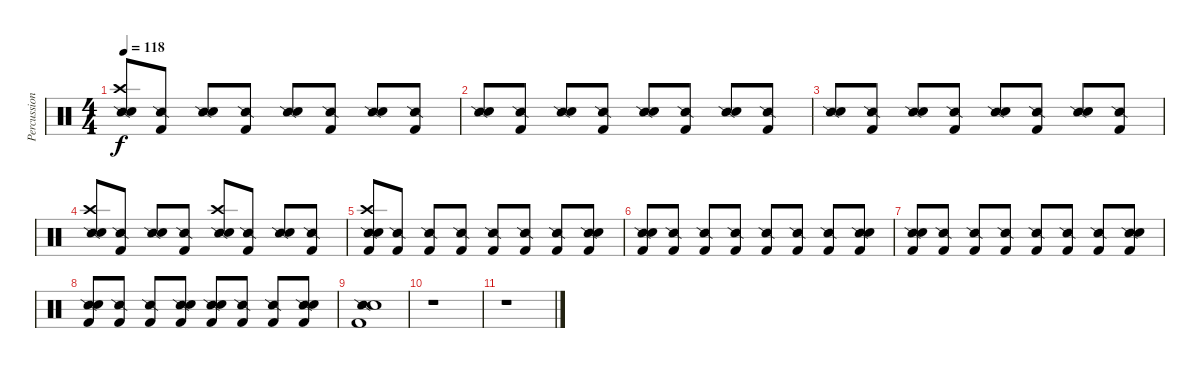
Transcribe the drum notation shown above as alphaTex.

\track ("Percussion" "Percussion") {instrument percussion}
\staff {score}
\articulation defaults
\ts (4 4)
\tempo 118
\clef neutral
\ks c
("Snare (side stick) 2" "Crash high (hit)" "Electric Snare (hit)").8{dy f} ("Snare (side stick) 2" "Kick (hit) 2").8 ("Snare (side stick) 2" "Electric Snare (hit)").8 ("Snare (side stick) 2" "Kick (hit) 2").8 ("Snare (side stick) 2" "Electric Snare (hit)").8 ("Snare (side stick) 2" "Kick (hit) 2").8 ("Snare (side stick) 2" "Electric Snare (hit)").8 ("Snare (side stick) 2" "Kick (hit) 2").8 |
("Snare (side stick) 2" "Electric Snare (hit)").8 ("Snare (side stick) 2" "Kick (hit) 2").8 ("Snare (side stick) 2" "Electric Snare (hit)").8 ("Snare (side stick) 2" "Kick (hit) 2").8 ("Snare (side stick) 2" "Electric Snare (hit)").8 ("Snare (side stick) 2" "Kick (hit) 2").8 ("Snare (side stick) 2" "Electric Snare (hit)").8 ("Snare (side stick) 2" "Kick (hit) 2").8 |
("Snare (side stick) 2" "Electric Snare (hit)").8 ("Snare (side stick) 2" "Kick (hit) 2").8 ("Snare (side stick) 2" "Electric Snare (hit)").8 ("Snare (side stick) 2" "Kick (hit) 2").8 ("Snare (side stick) 2" "Electric Snare (hit)").8 ("Snare (side stick) 2" "Kick (hit) 2").8 ("Snare (side stick) 2" "Electric Snare (hit)").8 ("Snare (side stick) 2" "Kick (hit) 2").8 |
("Snare (side stick) 2" "Crash high (hit)" "Electric Snare (hit)").8 ("Snare (side stick) 2" "Kick (hit) 2").8 ("Snare (side stick) 2" "Electric Snare (hit)").8 ("Snare (side stick) 2" "Kick (hit) 2").8 ("Snare (side stick) 2" "Crash high (hit)" "Electric Snare (hit)").8 ("Snare (side stick) 2" "Kick (hit) 2").8 ("Snare (side stick) 2" "Electric Snare (hit)").8 ("Snare (side stick) 2" "Kick (hit) 2").8 |
("Snare (side stick) 2" "Crash high (hit)" "Electric Snare (hit)" "Kick (hit) 2").8 ("Snare (side stick) 2" "Kick (hit) 2").8 ("Snare (side stick) 2" "Kick (hit) 2").8 ("Snare (side stick) 2" "Kick (hit) 2").8 ("Snare (side stick) 2" "Kick (hit) 2").8 ("Snare (side stick) 2" "Kick (hit) 2").8 ("Snare (side stick) 2" "Kick (hit) 2").8 ("Snare (side stick) 2" "Electric Snare (hit)" "Kick (hit) 2").8 |
("Snare (side stick) 2" "Electric Snare (hit)" "Kick (hit) 2").8 ("Snare (side stick) 2" "Kick (hit) 2").8 ("Snare (side stick) 2" "Kick (hit) 2").8 ("Snare (side stick) 2" "Kick (hit) 2").8 ("Snare (side stick) 2" "Kick (hit) 2").8 ("Snare (side stick) 2" "Kick (hit) 2").8 ("Snare (side stick) 2" "Kick (hit) 2").8 ("Snare (side stick) 2" "Electric Snare (hit)" "Kick (hit) 2").8 |
("Snare (side stick) 2" "Electric Snare (hit)" "Kick (hit) 2").8 ("Snare (side stick) 2" "Kick (hit) 2").8 ("Snare (side stick) 2" "Kick (hit) 2").8 ("Snare (side stick) 2" "Kick (hit) 2").8 ("Snare (side stick) 2" "Kick (hit) 2").8 ("Snare (side stick) 2" "Kick (hit) 2").8 ("Snare (side stick) 2" "Kick (hit) 2").8 ("Snare (side stick) 2" "Electric Snare (hit)" "Kick (hit) 2").8 |
("Snare (side stick) 2" "Electric Snare (hit)" "Kick (hit) 2").8 ("Snare (side stick) 2" "Kick (hit) 2").8 ("Snare (side stick) 2" "Kick (hit) 2").8 ("Snare (side stick) 2" "Electric Snare (hit)" "Kick (hit) 2").8 ("Snare (side stick) 2" "Electric Snare (hit)" "Kick (hit) 2").8 ("Snare (side stick) 2" "Kick (hit) 2").8 ("Snare (side stick) 2" "Kick (hit) 2").8 ("Snare (side stick) 2" "Electric Snare (hit)" "Kick (hit) 2").8 |
("Snare (side stick) 2" "Electric Snare (hit)" "Kick (hit) 2").1 |
r.1 |
r.1
